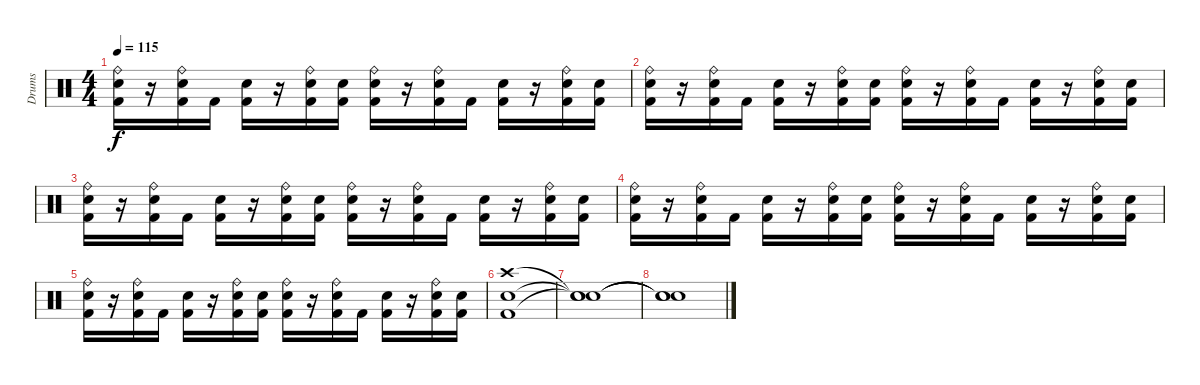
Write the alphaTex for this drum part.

\track ("Drums" "Drums") {instrument percussion}
\staff {score}
\articulation defaults
\ts (4 4)
\tempo 115
\clef neutral
\ks c
("Ride (bell)" "Snare (hit) 2" "Kick (hit) 2").16{dy f} r.16 ("Ride (bell)" "Snare (hit) 2" "Kick (hit) 2").16 "Kick (hit) 2".16 ("Electric Snare (hit)" "Kick (hit) 2").16 r.16 ("Ride (bell)" "Snare (hit) 2" "Kick (hit) 2").16 ("Snare (hit) 2" "Kick (hit) 2").16 ("Ride (bell)" "Snare (hit) 2" "Kick (hit) 2").16 r.16 ("Ride (bell)" "Snare (hit) 2" "Kick (hit) 2").16 "Kick (hit) 2".16 ("Electric Snare (hit)" "Kick (hit) 2").16 r.16 ("Ride (bell)" "Snare (hit) 2" "Kick (hit) 2").16 ("Snare (hit) 2" "Kick (hit) 2").16 |
("Ride (bell)" "Snare (hit) 2" "Kick (hit) 2").16 r.16 ("Ride (bell)" "Snare (hit) 2" "Kick (hit) 2").16 "Kick (hit) 2".16 ("Electric Snare (hit)" "Kick (hit) 2").16 r.16 ("Ride (bell)" "Snare (hit) 2" "Kick (hit) 2").16 ("Snare (hit) 2" "Kick (hit) 2").16 ("Ride (bell)" "Snare (hit) 2" "Kick (hit) 2").16 r.16 ("Ride (bell)" "Snare (hit) 2" "Kick (hit) 2").16 "Kick (hit) 2".16 ("Electric Snare (hit)" "Kick (hit) 2").16 r.16 ("Ride (bell)" "Snare (hit) 2" "Kick (hit) 2").16 ("Snare (hit) 2" "Kick (hit) 2").16 |
("Ride (bell)" "Snare (hit) 2" "Kick (hit) 2").16 r.16 ("Ride (bell)" "Snare (hit) 2" "Kick (hit) 2").16 "Kick (hit) 2".16 ("Electric Snare (hit)" "Kick (hit) 2").16 r.16 ("Ride (bell)" "Snare (hit) 2" "Kick (hit) 2").16 ("Snare (hit) 2" "Kick (hit) 2").16 ("Ride (bell)" "Snare (hit) 2" "Kick (hit) 2").16 r.16 ("Ride (bell)" "Snare (hit) 2" "Kick (hit) 2").16 "Kick (hit) 2".16 ("Electric Snare (hit)" "Kick (hit) 2").16 r.16 ("Ride (bell)" "Snare (hit) 2" "Kick (hit) 2").16 ("Snare (hit) 2" "Kick (hit) 2").16 |
("Ride (bell)" "Snare (hit) 2" "Kick (hit) 2").16 r.16 ("Ride (bell)" "Snare (hit) 2" "Kick (hit) 2").16 "Kick (hit) 2".16 ("Electric Snare (hit)" "Kick (hit) 2").16 r.16 ("Ride (bell)" "Snare (hit) 2" "Kick (hit) 2").16 ("Snare (hit) 2" "Kick (hit) 2").16 ("Ride (bell)" "Snare (hit) 2" "Kick (hit) 2").16 r.16 ("Ride (bell)" "Snare (hit) 2" "Kick (hit) 2").16 "Kick (hit) 2".16 ("Electric Snare (hit)" "Kick (hit) 2").16 r.16 ("Ride (bell)" "Snare (hit) 2" "Kick (hit) 2").16 ("Snare (hit) 2" "Kick (hit) 2").16 |
("Ride (bell)" "Snare (hit) 2" "Kick (hit) 2").16 r.16 ("Ride (bell)" "Snare (hit) 2" "Kick (hit) 2").16 "Kick (hit) 2".16 ("Electric Snare (hit)" "Kick (hit) 2").16 r.16 ("Ride (bell)" "Snare (hit) 2" "Kick (hit) 2").16 ("Snare (hit) 2" "Kick (hit) 2").16 ("Ride (bell)" "Snare (hit) 2" "Kick (hit) 2").16 r.16 ("Ride (bell)" "Snare (hit) 2" "Kick (hit) 2").16 "Kick (hit) 2".16 ("Electric Snare (hit)" "Kick (hit) 2").16 r.16 ("Ride (bell)" "Snare (hit) 2" "Kick (hit) 2").16 ("Snare (hit) 2" "Kick (hit) 2").16 |
("Crash high (hit)" "Snare (hit) 2" "Kick (hit) 2").1 |
("Snare (hit)"{t} "Snare (hit)"{t} "Snare (hit)"{t}).1 |
("Snare (hit)"{t} "Snare (hit)"{t} "Snare (hit)"{t}).1
